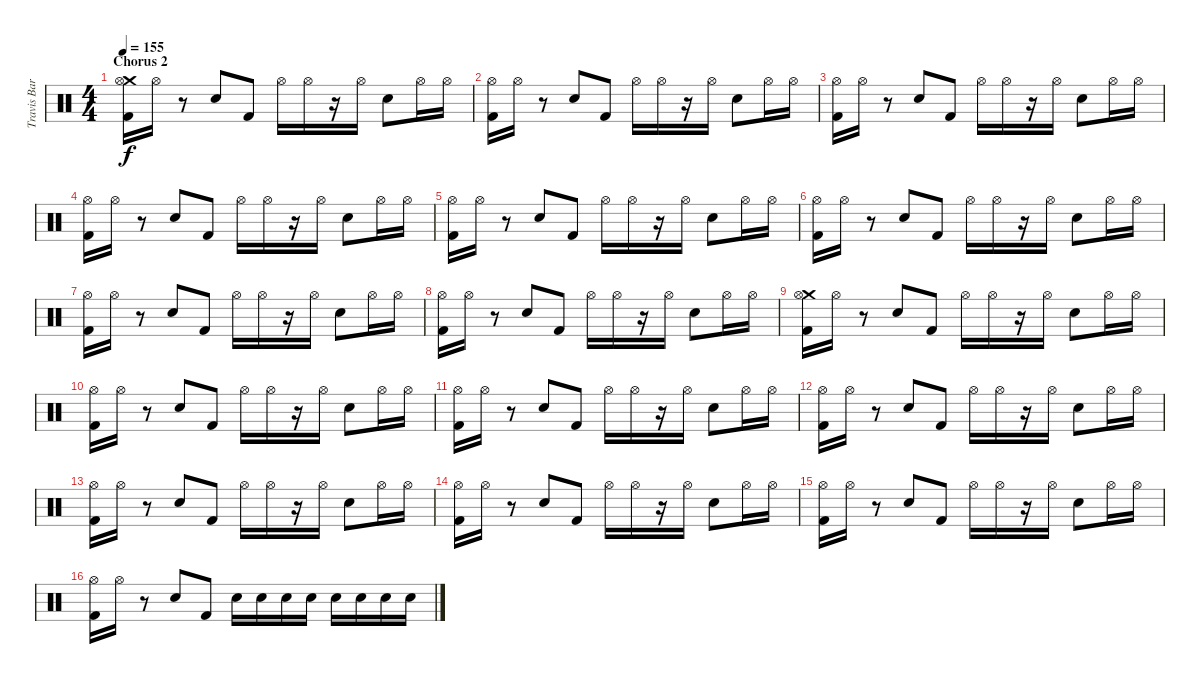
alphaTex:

\track ("Travis Barker Drums" "Travis Bar") {instrument percussion}
\staff {score}
\articulation defaults
\ts (4 4)
\section ("" "Chorus 2")
\tempo 155
\clef neutral
\ks c
("Crash medium (hit)" "Hi-Hat (open)" "Kick (hit) 2").16{dy f} "Hi-Hat (open)".16 r.8 "Electric Snare (hit)".8 "Kick (hit) 2".8 "Hi-Hat (open)".16 "Hi-Hat (open)".16 r.16 "Hi-Hat (open)".16 "Electric Snare (hit)".8 "Hi-Hat (open)".16 "Hi-Hat (open)".16 |
("Hi-Hat (open)" "Kick (hit) 2").16 "Hi-Hat (open)".16 r.8 "Electric Snare (hit)".8 "Kick (hit) 2".8 "Hi-Hat (open)".16 "Hi-Hat (open)".16 r.16 "Hi-Hat (open)".16 "Electric Snare (hit)".8 "Hi-Hat (open)".16 "Hi-Hat (open)".16 |
("Hi-Hat (open)" "Kick (hit) 2").16 "Hi-Hat (open)".16 r.8 "Electric Snare (hit)".8 "Kick (hit) 2".8 "Hi-Hat (open)".16 "Hi-Hat (open)".16 r.16 "Hi-Hat (open)".16 "Electric Snare (hit)".8 "Hi-Hat (open)".16 "Hi-Hat (open)".16 |
("Hi-Hat (open)" "Kick (hit) 2").16 "Hi-Hat (open)".16 r.8 "Electric Snare (hit)".8 "Kick (hit) 2".8 "Hi-Hat (open)".16 "Hi-Hat (open)".16 r.16 "Hi-Hat (open)".16 "Electric Snare (hit)".8 "Hi-Hat (open)".16 "Hi-Hat (open)".16 |
("Hi-Hat (open)" "Kick (hit) 2").16 "Hi-Hat (open)".16 r.8 "Electric Snare (hit)".8 "Kick (hit) 2".8 "Hi-Hat (open)".16 "Hi-Hat (open)".16 r.16 "Hi-Hat (open)".16 "Electric Snare (hit)".8 "Hi-Hat (open)".16 "Hi-Hat (open)".16 |
("Hi-Hat (open)" "Kick (hit) 2").16 "Hi-Hat (open)".16 r.8 "Electric Snare (hit)".8 "Kick (hit) 2".8 "Hi-Hat (open)".16 "Hi-Hat (open)".16 r.16 "Hi-Hat (open)".16 "Electric Snare (hit)".8 "Hi-Hat (open)".16 "Hi-Hat (open)".16 |
("Hi-Hat (open)" "Kick (hit) 2").16 "Hi-Hat (open)".16 r.8 "Electric Snare (hit)".8 "Kick (hit) 2".8 "Hi-Hat (open)".16 "Hi-Hat (open)".16 r.16 "Hi-Hat (open)".16 "Electric Snare (hit)".8 "Hi-Hat (open)".16 "Hi-Hat (open)".16 |
("Hi-Hat (open)" "Kick (hit) 2").16 "Hi-Hat (open)".16 r.8 "Electric Snare (hit)".8 "Kick (hit) 2".8 "Hi-Hat (open)".16 "Hi-Hat (open)".16 r.16 "Hi-Hat (open)".16 "Electric Snare (hit)".8 "Hi-Hat (open)".16 "Hi-Hat (open)".16 |
("Crash medium (hit)" "Hi-Hat (open)" "Kick (hit) 2").16 "Hi-Hat (open)".16 r.8 "Electric Snare (hit)".8 "Kick (hit) 2".8 "Hi-Hat (open)".16 "Hi-Hat (open)".16 r.16 "Hi-Hat (open)".16 "Electric Snare (hit)".8 "Hi-Hat (open)".16 "Hi-Hat (open)".16 |
("Hi-Hat (open)" "Kick (hit) 2").16 "Hi-Hat (open)".16 r.8 "Electric Snare (hit)".8 "Kick (hit) 2".8 "Hi-Hat (open)".16 "Hi-Hat (open)".16 r.16 "Hi-Hat (open)".16 "Electric Snare (hit)".8 "Hi-Hat (open)".16 "Hi-Hat (open)".16 |
("Hi-Hat (open)" "Kick (hit) 2").16 "Hi-Hat (open)".16 r.8 "Electric Snare (hit)".8 "Kick (hit) 2".8 "Hi-Hat (open)".16 "Hi-Hat (open)".16 r.16 "Hi-Hat (open)".16 "Electric Snare (hit)".8 "Hi-Hat (open)".16 "Hi-Hat (open)".16 |
("Hi-Hat (open)" "Kick (hit) 2").16 "Hi-Hat (open)".16 r.8 "Electric Snare (hit)".8 "Kick (hit) 2".8 "Hi-Hat (open)".16 "Hi-Hat (open)".16 r.16 "Hi-Hat (open)".16 "Electric Snare (hit)".8 "Hi-Hat (open)".16 "Hi-Hat (open)".16 |
("Hi-Hat (open)" "Kick (hit) 2").16 "Hi-Hat (open)".16 r.8 "Electric Snare (hit)".8 "Kick (hit) 2".8 "Hi-Hat (open)".16 "Hi-Hat (open)".16 r.16 "Hi-Hat (open)".16 "Electric Snare (hit)".8 "Hi-Hat (open)".16 "Hi-Hat (open)".16 |
("Hi-Hat (open)" "Kick (hit) 2").16 "Hi-Hat (open)".16 r.8 "Electric Snare (hit)".8 "Kick (hit) 2".8 "Hi-Hat (open)".16 "Hi-Hat (open)".16 r.16 "Hi-Hat (open)".16 "Electric Snare (hit)".8 "Hi-Hat (open)".16 "Hi-Hat (open)".16 |
("Hi-Hat (open)" "Kick (hit) 2").16 "Hi-Hat (open)".16 r.8 "Electric Snare (hit)".8 "Kick (hit) 2".8 "Hi-Hat (open)".16 "Hi-Hat (open)".16 r.16 "Hi-Hat (open)".16 "Electric Snare (hit)".8 "Hi-Hat (open)".16 "Hi-Hat (open)".16 |
("Hi-Hat (open)" "Kick (hit) 2").16 "Hi-Hat (open)".16 r.8 "Electric Snare (hit)".8 "Kick (hit) 2".8 "Electric Snare (hit)".16 "Electric Snare (hit)".16 "Electric Snare (hit)".16 "Electric Snare (hit)".16 "Electric Snare (hit)".16 "Electric Snare (hit)".16 "Electric Snare (hit)".16 "Electric Snare (hit)".16
